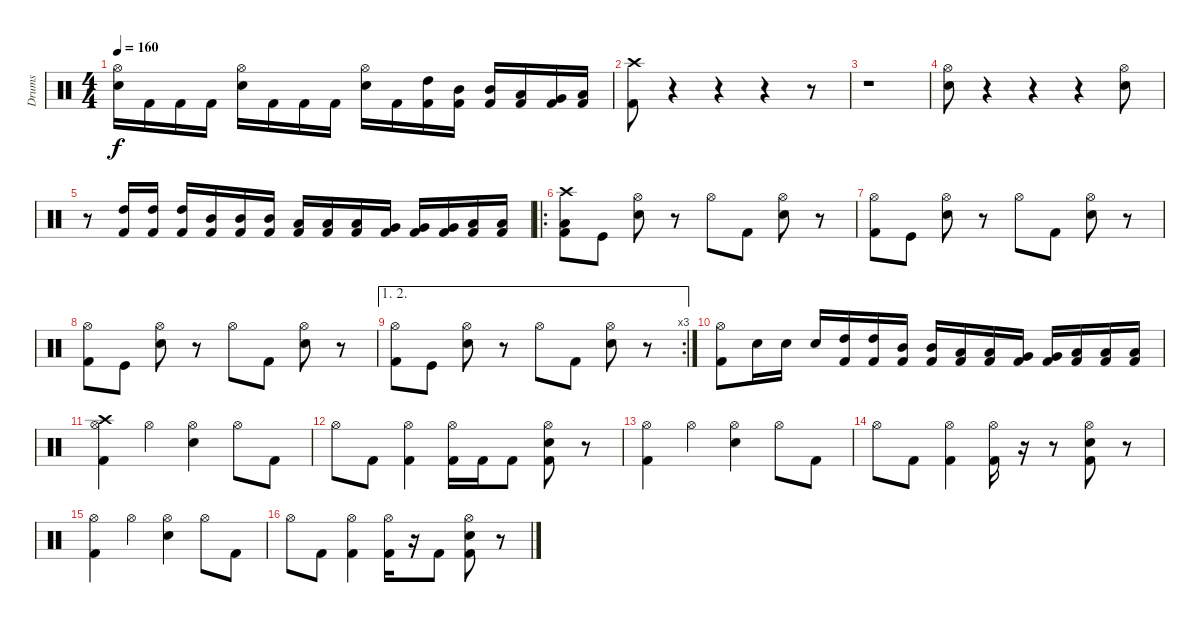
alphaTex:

\track ("Drums" "Drums") {instrument percussion}
\staff {score}
\articulation defaults
\ts (4 4)
\tempo 160
\clef neutral
\ks c
("Hi-Hat (open)" "Electric Snare (hit)").16{dy f} "Kick (hit) 2".16 "Kick (hit) 2".16 "Kick (hit) 2".16 ("Hi-Hat (open)" "Electric Snare (hit)").16 "Kick (hit) 2".16 "Kick (hit) 2".16 "Kick (hit) 2".16 ("Hi-Hat (open)" "Electric Snare (hit)").16 "Kick (hit) 2".16 ("High Tom (hit)" "Kick (hit) 2").16 ("Mid Tom (hit)" "Kick (hit) 2").16 ("Mid Tom (hit)" "Kick (hit) 2").16 ("Low Tom (hit)" "Kick (hit) 2").16 ("Very Low Tom (hit)" "Kick (hit) 2").16 ("Low Floor Tom (hit)" "Kick (hit) 2").16 |
("Crash high (hit)" "Kick (hit) 2").8 r.4 r.4 r.4 r.8 |
r.1 |
("Hi-Hat (open)" "Electric Snare (hit)").8 r.4 r.4 r.4 ("Hi-Hat (open)" "Electric Snare (hit)").8 |
r.8 ("High Tom (hit)" "Kick (hit) 2").16 ("High Tom (hit)" "Kick (hit) 2").16 ("High Tom (hit)" "Kick (hit) 2").16 ("Mid Tom (hit)" "Kick (hit) 2").16 ("Mid Tom (hit)" "Kick (hit) 2").16 ("Mid Tom (hit)" "Kick (hit) 2").16 ("Low Tom (hit)" "Kick (hit) 2").16 ("Low Tom (hit)" "Kick (hit) 2").16 ("Low Tom (hit)" "Kick (hit) 2").16 ("Very Low Tom (hit)" "Kick (hit) 2").16 ("Very Low Tom (hit)" "Kick (hit) 2").16 ("Very Low Tom (hit)" "Kick (hit) 2").16 ("Low Floor Tom (hit)" "Kick (hit) 2").16 ("Low Floor Tom (hit)" "Kick (hit) 2").16 |
\ro
("Crash high (hit)" "Low Floor Tom (hit)" "Kick (hit) 2").8 "Kick (hit)".8 ("Hi-Hat (open)" "Electric Snare (hit)").8 r.8 "Hi-Hat (open)".8 "Kick (hit) 2".8 ("Hi-Hat (open)" "Electric Snare (hit)").8 r.8 |
("Hi-Hat (open)" "Kick (hit) 2").8 "Kick (hit)".8 ("Hi-Hat (open)" "Electric Snare (hit)").8 r.8 "Hi-Hat (open)".8 "Kick (hit) 2".8 ("Hi-Hat (open)" "Electric Snare (hit)").8 r.8 |
("Hi-Hat (open)" "Kick (hit) 2").8 "Kick (hit)".8 ("Hi-Hat (open)" "Electric Snare (hit)").8 r.8 "Hi-Hat (open)".8 "Kick (hit) 2".8 ("Hi-Hat (open)" "Electric Snare (hit)").8 r.8 |
\ae (1 2)
\rc 3
("Hi-Hat (open)" "Kick (hit) 2").8 "Kick (hit)".8 ("Hi-Hat (open)" "Electric Snare (hit)").8 r.8 "Hi-Hat (open)".8 "Kick (hit) 2".8 ("Hi-Hat (open)" "Electric Snare (hit)").8 r.8 |
("Hi-Hat (open)" "Kick (hit) 2").8 "Electric Snare (hit)".16 "Electric Snare (hit)".16 "Electric Snare (hit)".16 ("High Tom (hit)" "Kick (hit) 2").16 ("High Tom (hit)" "Kick (hit) 2").16 ("Mid Tom (hit)" "Kick (hit) 2").16 ("Mid Tom (hit)" "Kick (hit) 2").16 ("Low Tom (hit)" "Kick (hit) 2").16 ("Low Tom (hit)" "Kick (hit) 2").16 ("Very Low Tom (hit)" "Kick (hit) 2").16 ("Very Low Tom (hit)" "Kick (hit) 2").16 ("Low Floor Tom (hit)" "Kick (hit) 2").16 ("Low Floor Tom (hit)" "Kick (hit) 2").16 ("Low Floor Tom (hit)" "Kick (hit) 2").16 |
("Crash high (hit)" "Hi-Hat (open)" "Kick (hit) 2").4 "Hi-Hat (open)".4 ("Hi-Hat (open)" "Electric Snare (hit)").4 "Hi-Hat (open)".8 "Kick (hit) 2".8 |
"Hi-Hat (open)".8 "Kick (hit) 2".8 ("Hi-Hat (open)" "Kick (hit) 2").4 ("Hi-Hat (open)" "Kick (hit) 2").16 "Kick (hit) 2".16 "Kick (hit) 2".8 ("Hi-Hat (open)" "Kick (hit) 2" "Electric Snare (hit)").8 r.8 |
("Hi-Hat (open)" "Kick (hit) 2").4 "Hi-Hat (open)".4 ("Hi-Hat (open)" "Electric Snare (hit)").4 "Hi-Hat (open)".8 "Kick (hit) 2".8 |
"Hi-Hat (open)".8 "Kick (hit) 2".8 ("Hi-Hat (open)" "Kick (hit) 2").4 ("Hi-Hat (open)" "Kick (hit) 2").16 r.16 r.8 ("Hi-Hat (open)" "Kick (hit) 2" "Electric Snare (hit)").8 r.8 |
("Hi-Hat (open)" "Kick (hit) 2").4 "Hi-Hat (open)".4 ("Hi-Hat (open)" "Electric Snare (hit)").4 "Hi-Hat (open)".8 "Kick (hit) 2".8 |
"Hi-Hat (open)".8 "Kick (hit) 2".8 ("Hi-Hat (open)" "Kick (hit) 2").4 ("Hi-Hat (open)" "Kick (hit) 2").16 r.16 "Kick (hit) 2".8 ("Hi-Hat (open)" "Kick (hit) 2" "Electric Snare (hit)").8 r.8
